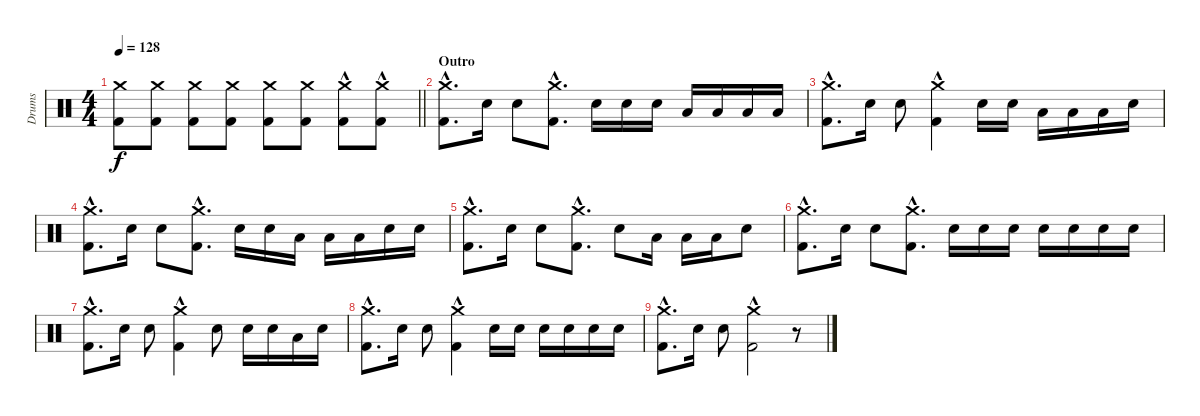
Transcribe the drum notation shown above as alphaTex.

\track ("Drums" "Drums") {instrument percussion}
\staff {score}
\articulation defaults
\ts (4 4)
\tempo 128
\clef neutral
\barLineRight lightlight
\ks c
("Crash medium (hit)" "Kick (hit) 2").8{dy f} ("Crash medium (hit)" "Kick (hit) 2").8 ("Crash medium (hit)" "Kick (hit) 2").8 ("Crash medium (hit)" "Kick (hit) 2").8 ("Crash medium (hit)" "Kick (hit) 2").8 ("Crash medium (hit)" "Kick (hit) 2").8 ("Crash medium (hit)"{hac} "Kick (hit) 2").8 ("Crash medium (hit)"{hac} "Kick (hit) 2").8 |
\section ("" "Outro")
("Crash medium (hit)"{hac} "Kick (hit) 2").8{d} "Snare (hit) 2".16 "Snare (hit) 2".8 ("Crash medium (hit)"{hac} "Kick (hit) 2").8{d} "Snare (hit) 2".16 "Snare (hit) 2".16 "Snare (hit) 2".16 "Low Tom (hit)".16 "Low Tom (hit)".16 "Low Floor Tom (hit)".16 "Low Floor Tom (hit)".16 |
("Crash medium (hit)"{hac} "Kick (hit) 2").8{d} "Snare (hit) 2".16 "Snare (hit) 2".8 ("Crash medium (hit)"{hac} "Kick (hit) 2").4 "Snare (hit) 2".16 "Snare (hit) 2".16 "Low Floor Tom (hit)".16 "Low Floor Tom (hit)".16 "Low Floor Tom (hit)".16 "Snare (hit) 2".16 |
("Crash medium (hit)"{hac} "Kick (hit) 2").8{d} "Snare (hit) 2".16 "Snare (hit) 2".8 ("Crash medium (hit)"{hac} "Kick (hit) 2").8{d} "Snare (hit) 2".16 "Snare (hit) 2".16 "Low Floor Tom (hit)".16 "Low Floor Tom (hit)".16 "Low Floor Tom (hit)".16 "Snare (hit) 2".16 "Snare (hit) 2".16 |
("Crash medium (hit)"{hac} "Kick (hit) 2").8{d} "Snare (hit) 2".16 "Snare (hit) 2".8 ("Crash medium (hit)"{hac} "Kick (hit) 2").8{d} "Snare (hit) 2".8 "Low Floor Tom (hit)".16 "Low Floor Tom (hit)".16 "Low Floor Tom (hit)".16 "Snare (hit) 2".8 |
("Crash medium (hit)"{hac} "Kick (hit) 2").8{d} "Snare (hit) 2".16 "Snare (hit) 2".8 ("Crash medium (hit)"{hac} "Kick (hit) 2").8{d} "Snare (hit) 2".16 "Snare (hit) 2".16 "Snare (hit) 2".16 "Snare (hit) 2".16 "Snare (hit) 2".16 "Snare (hit) 2".16 "Snare (hit) 2".16 |
("Crash medium (hit)"{hac} "Kick (hit) 2").8{d} "Snare (hit) 2".16 "Snare (hit) 2".8 ("Crash medium (hit)"{hac} "Kick (hit) 2").4 "Snare (hit) 2".8 "Snare (hit) 2".16 "Snare (hit) 2".16 "Low Floor Tom (hit)".16 "Snare (hit) 2".16 |
("Crash medium (hit)"{hac} "Kick (hit) 2").8{d} "Snare (hit) 2".16 "Snare (hit) 2".8 ("Crash medium (hit)"{hac} "Kick (hit) 2").4 "Snare (hit) 2".16 "Snare (hit) 2".16 "Snare (hit) 2".16 "Snare (hit) 2".16 "Snare (hit) 2".16 "Snare (hit) 2".16 |
("Crash medium (hit)"{hac} "Kick (hit) 2").8{d} "Snare (hit) 2".16 "Snare (hit) 2".8 ("Crash medium (hit)"{hac} "Kick (hit) 2").2 r.8
